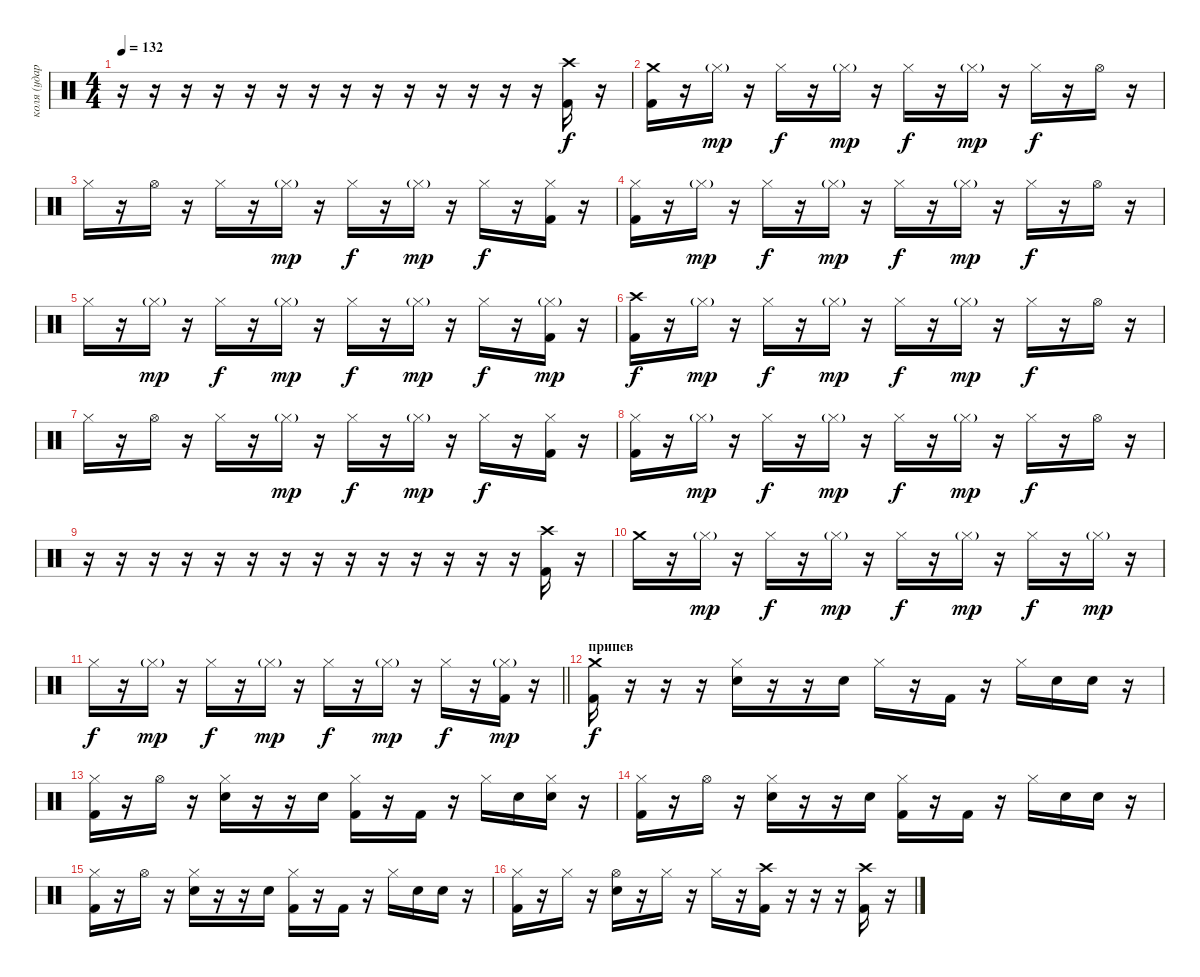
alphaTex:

\track ("коля (ударные)" "коля (удар") {instrument percussion}
\staff {score}
\articulation defaults
\ts (4 4)
\tempo 132
\clef neutral
\ks c
r.16{dy f} r.16 r.16 r.16 r.16 r.16 r.16 r.16 r.16 r.16 r.16 r.16 r.16 r.16 ("Kick (hit) 2" "Crash high (hit)").16 r.16 |
("Kick (hit) 2" "Crash medium (hit)").16 r.16 "Hi-Hat (closed)"{g}.16{dy mp} r.16 "Hi-Hat (closed)".16{dy f} r.16 "Hi-Hat (closed)"{g}.16{dy mp} r.16 "Hi-Hat (closed)".16{dy f} r.16 "Hi-Hat (closed)"{g}.16{dy mp} r.16 "Hi-Hat (closed)".16{dy f} r.16 "Hi-Hat (open)".16 r.16 |
"Hi-Hat (closed)".16 r.16 "Hi-Hat (open)".16 r.16 "Hi-Hat (closed)".16 r.16 "Hi-Hat (closed)"{g}.16{dy mp} r.16 "Hi-Hat (closed)".16{dy f} r.16 "Hi-Hat (closed)"{g}.16{dy mp} r.16 "Hi-Hat (closed)".16{dy f} r.16 ("Kick (hit) 2" "Hi-Hat (closed)").16 r.16 |
("Kick (hit) 2" "Hi-Hat (closed)").16 r.16 "Hi-Hat (closed)"{g}.16{dy mp} r.16 "Hi-Hat (closed)".16{dy f} r.16 "Hi-Hat (closed)"{g}.16{dy mp} r.16 "Hi-Hat (closed)".16{dy f} r.16 "Hi-Hat (closed)"{g}.16{dy mp} r.16 "Hi-Hat (closed)".16{dy f} r.16 "Hi-Hat (open)".16 r.16 |
"Hi-Hat (closed)".16 r.16 "Hi-Hat (closed)"{g}.16{dy mp} r.16 "Hi-Hat (closed)".16{dy f} r.16 "Hi-Hat (closed)"{g}.16{dy mp} r.16 "Hi-Hat (closed)".16{dy f} r.16 "Hi-Hat (closed)"{g}.16{dy mp} r.16 "Hi-Hat (closed)".16{dy f} r.16 ("Kick (hit) 2" "Hi-Hat (closed)"{g}).16{dy mp} r.16 |
("Kick (hit) 2" "Crash high (hit)").16{dy f} r.16 "Hi-Hat (closed)"{g}.16{dy mp} r.16 "Hi-Hat (closed)".16{dy f} r.16 "Hi-Hat (closed)"{g}.16{dy mp} r.16 "Hi-Hat (closed)".16{dy f} r.16 "Hi-Hat (closed)"{g}.16{dy mp} r.16 "Hi-Hat (closed)".16{dy f} r.16 "Hi-Hat (open)".16 r.16 |
"Hi-Hat (closed)".16 r.16 "Hi-Hat (open)".16 r.16 "Hi-Hat (closed)".16 r.16 "Hi-Hat (closed)"{g}.16{dy mp} r.16 "Hi-Hat (closed)".16{dy f} r.16 "Hi-Hat (closed)"{g}.16{dy mp} r.16 "Hi-Hat (closed)".16{dy f} r.16 ("Kick (hit) 2" "Hi-Hat (closed)").16 r.16 |
("Kick (hit) 2" "Hi-Hat (closed)").16 r.16 "Hi-Hat (closed)"{g}.16{dy mp} r.16 "Hi-Hat (closed)".16{dy f} r.16 "Hi-Hat (closed)"{g}.16{dy mp} r.16 "Hi-Hat (closed)".16{dy f} r.16 "Hi-Hat (closed)"{g}.16{dy mp} r.16 "Hi-Hat (closed)".16{dy f} r.16 "Hi-Hat (open)".16 r.16 |
r.16 r.16 r.16 r.16 r.16 r.16 r.16 r.16 r.16 r.16 r.16 r.16 r.16 r.16 ("Kick (hit) 2" "Crash high (hit)").16 r.16 |
"Crash medium (hit)".16 r.16 "Hi-Hat (closed)"{g}.16{dy mp} r.16 "Hi-Hat (closed)".16{dy f} r.16 "Hi-Hat (closed)"{g}.16{dy mp} r.16 "Hi-Hat (closed)".16{dy f} r.16 "Hi-Hat (closed)"{g}.16{dy mp} r.16 "Hi-Hat (closed)".16{dy f} r.16 "Hi-Hat (closed)"{g}.16{dy mp} r.16 |
\barLineRight lightlight "Hi-Hat (closed)".16{dy f}
r.16 "Hi-Hat (closed)"{g}.16{dy mp} r.16 "Hi-Hat (closed)".16{dy f} r.16 "Hi-Hat (closed)"{g}.16{dy mp} r.16 "Hi-Hat (closed)".16{dy f} r.16 "Hi-Hat (closed)"{g}.16{dy mp} r.16 "Hi-Hat (closed)".16{dy f} r.16 ("Kick (hit) 2" "Hi-Hat (closed)"{g}).16{dy mp} r.16 |
\section ("" "припев")
("Kick (hit) 2" "Crash medium (hit)").16{dy f} r.16 r.16 r.16 ("Snare (hit) 2" "Hi-Hat (closed)").16 r.16 r.16 "Snare (hit) 2".16 "Hi-Hat (closed)".16 r.16 "Kick (hit) 2".16 r.16 "Hi-Hat (closed)".16 "Snare (hit) 2".16 "Snare (hit) 2".16 r.16 |
("Kick (hit) 2" "Hi-Hat (closed)").16 r.16 "Hi-Hat (open)".16 r.16 ("Snare (hit) 2" "Hi-Hat (closed)").16 r.16 r.16 "Snare (hit) 2".16 ("Kick (hit) 2" "Hi-Hat (closed)").16 r.16 "Kick (hit) 2".16 r.16 "Hi-Hat (closed)".16 "Snare (hit) 2".16 ("Snare (hit) 2" "Hi-Hat (closed)").16 r.16 |
("Kick (hit) 2" "Hi-Hat (closed)").16 r.16 "Hi-Hat (open)".16 r.16 ("Snare (hit) 2" "Hi-Hat (closed)").16 r.16 r.16 "Snare (hit) 2".16 ("Kick (hit) 2" "Hi-Hat (closed)").16 r.16 "Kick (hit) 2".16 r.16 "Hi-Hat (closed)".16 "Snare (hit) 2".16 "Snare (hit) 2".16 r.16 |
("Kick (hit) 2" "Hi-Hat (closed)").16 r.16 "Hi-Hat (open)".16 r.16 ("Snare (hit) 2" "Hi-Hat (closed)").16 r.16 r.16 "Snare (hit) 2".16 ("Kick (hit) 2" "Hi-Hat (closed)").16 r.16 "Kick (hit) 2".16 r.16 "Hi-Hat (closed)".16 "Snare (hit) 2".16 "Snare (hit) 2".16 r.16 |
("Kick (hit) 2" "Hi-Hat (closed)").16 r.16 "Hi-Hat (closed)".16 r.16 ("Snare (hit) 2" "Hi-Hat (open)").16 r.16 "Hi-Hat (closed)".16 r.16 "Hi-Hat (closed)".16 r.16 ("Kick (hit) 2" "Crash high (hit)").16 r.16 r.16 r.16 ("Kick (hit) 2" "Crash high (hit)").16 r.16
